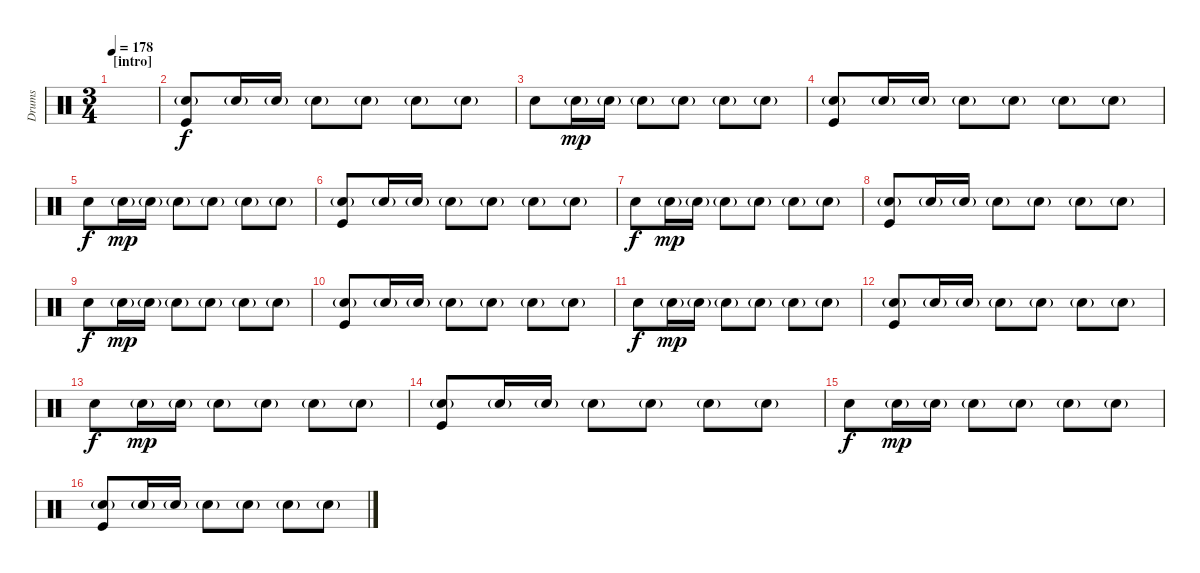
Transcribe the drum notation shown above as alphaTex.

\track ("Drums" "Drums") {instrument percussion}
\staff {score}
\articulation defaults
\ts (3 4)
\section ("" "[intro]")
\tempo 178
\clef neutral
\ks c
|
("Snare (hit) 2"{g} "Kick (hit)").8 "Snare (hit) 2"{g}.16 "Snare (hit) 2"{g}.16 "Snare (hit) 2"{g}.8 "Snare (hit) 2"{g}.8 "Snare (hit) 2"{g}.8 "Snare (hit) 2"{g}.8 |
"Snare (hit) 2".8{dy f} "Snare (hit) 2"{g}.16{dy mp} "Snare (hit) 2"{g}.16 "Snare (hit) 2"{g}.8 "Snare (hit) 2"{g}.8 "Snare (hit) 2"{g}.8 "Snare (hit) 2"{g}.8 |
("Snare (hit) 2"{g} "Kick (hit)").8 "Snare (hit) 2"{g}.16 "Snare (hit) 2"{g}.16 "Snare (hit) 2"{g}.8 "Snare (hit) 2"{g}.8 "Snare (hit) 2"{g}.8 "Snare (hit) 2"{g}.8 |
"Snare (hit) 2".8{dy f} "Snare (hit) 2"{g}.16{dy mp} "Snare (hit) 2"{g}.16 "Snare (hit) 2"{g}.8 "Snare (hit) 2"{g}.8 "Snare (hit) 2"{g}.8 "Snare (hit) 2"{g}.8 |
("Snare (hit) 2"{g} "Kick (hit)").8 "Snare (hit) 2"{g}.16 "Snare (hit) 2"{g}.16 "Snare (hit) 2"{g}.8 "Snare (hit) 2"{g}.8 "Snare (hit) 2"{g}.8 "Snare (hit) 2"{g}.8 |
"Snare (hit) 2".8{dy f} "Snare (hit) 2"{g}.16{dy mp} "Snare (hit) 2"{g}.16 "Snare (hit) 2"{g}.8 "Snare (hit) 2"{g}.8 "Snare (hit) 2"{g}.8 "Snare (hit) 2"{g}.8 |
("Snare (hit) 2"{g} "Kick (hit)").8 "Snare (hit) 2"{g}.16 "Snare (hit) 2"{g}.16 "Snare (hit) 2"{g}.8 "Snare (hit) 2"{g}.8 "Snare (hit) 2"{g}.8 "Snare (hit) 2"{g}.8 |
"Snare (hit) 2".8{dy f} "Snare (hit) 2"{g}.16{dy mp} "Snare (hit) 2"{g}.16 "Snare (hit) 2"{g}.8 "Snare (hit) 2"{g}.8 "Snare (hit) 2"{g}.8 "Snare (hit) 2"{g}.8 |
("Snare (hit) 2"{g} "Kick (hit)").8 "Snare (hit) 2"{g}.16 "Snare (hit) 2"{g}.16 "Snare (hit) 2"{g}.8 "Snare (hit) 2"{g}.8 "Snare (hit) 2"{g}.8 "Snare (hit) 2"{g}.8 |
"Snare (hit) 2".8{dy f} "Snare (hit) 2"{g}.16{dy mp} "Snare (hit) 2"{g}.16 "Snare (hit) 2"{g}.8 "Snare (hit) 2"{g}.8 "Snare (hit) 2"{g}.8 "Snare (hit) 2"{g}.8 |
("Snare (hit) 2"{g} "Kick (hit)").8 "Snare (hit) 2"{g}.16 "Snare (hit) 2"{g}.16 "Snare (hit) 2"{g}.8 "Snare (hit) 2"{g}.8 "Snare (hit) 2"{g}.8 "Snare (hit) 2"{g}.8 |
"Snare (hit) 2".8{dy f} "Snare (hit) 2"{g}.16{dy mp} "Snare (hit) 2"{g}.16 "Snare (hit) 2"{g}.8 "Snare (hit) 2"{g}.8 "Snare (hit) 2"{g}.8 "Snare (hit) 2"{g}.8 |
("Snare (hit) 2"{g} "Kick (hit)").8 "Snare (hit) 2"{g}.16 "Snare (hit) 2"{g}.16 "Snare (hit) 2"{g}.8 "Snare (hit) 2"{g}.8 "Snare (hit) 2"{g}.8 "Snare (hit) 2"{g}.8 |
"Snare (hit) 2".8{dy f} "Snare (hit) 2"{g}.16{dy mp} "Snare (hit) 2"{g}.16 "Snare (hit) 2"{g}.8 "Snare (hit) 2"{g}.8 "Snare (hit) 2"{g}.8 "Snare (hit) 2"{g}.8 |
("Snare (hit) 2"{g} "Kick (hit)").8 "Snare (hit) 2"{g}.16 "Snare (hit) 2"{g}.16 "Snare (hit) 2"{g}.8 "Snare (hit) 2"{g}.8 "Snare (hit) 2"{g}.8 "Snare (hit) 2"{g}.8
